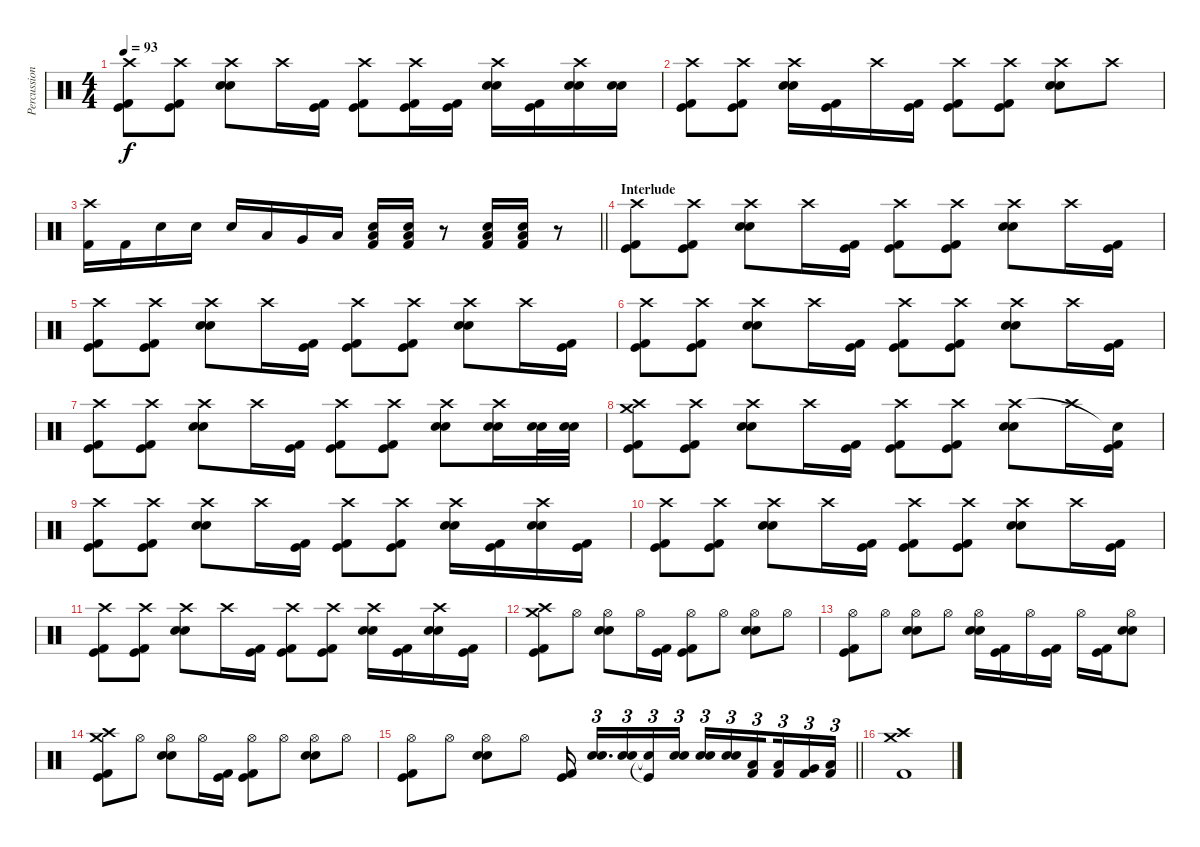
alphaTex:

\track ("Percussion" "Percussion") {instrument percussion}
\staff {score}
\articulation defaults
\ts (4 4)
\tempo 93
\clef neutral
\ks c
("Kick (hit) 2" "Kick (hit)" "Crash high (hit)").8{dy f} ("Kick (hit) 2" "Kick (hit)" "Crash high (hit)").8 ("Electric Snare (hit)" "Snare (hit) 2" "Crash high (hit)").8 "Crash high (hit)".16 ("Kick (hit) 2" "Kick (hit)").16 ("Kick (hit) 2" "Kick (hit)" "Crash high (hit)").8 ("Kick (hit) 2" "Kick (hit)" "Crash high (hit)").16 ("Kick (hit) 2" "Kick (hit)").16 ("Electric Snare (hit)" "Snare (hit) 2" "Crash high (hit)").16 ("Kick (hit) 2" "Kick (hit)").16 ("Electric Snare (hit)" "Snare (hit) 2" "Crash high (hit)").16 ("Electric Snare (hit)" "Snare (hit) 2").16 |
("Kick (hit) 2" "Kick (hit)" "Crash high (hit)").8 ("Kick (hit) 2" "Kick (hit)" "Crash high (hit)").8 ("Electric Snare (hit)" "Snare (hit) 2" "Crash high (hit)").16 ("Kick (hit) 2" "Kick (hit)").16 "Crash high (hit)".16 ("Kick (hit) 2" "Kick (hit)").16 ("Kick (hit) 2" "Kick (hit)" "Crash high (hit)").8 ("Kick (hit) 2" "Kick (hit)" "Crash high (hit)").8 ("Electric Snare (hit)" "Snare (hit) 2" "Crash high (hit)").8 "Crash high (hit)".8 |
\barLineRight lightlight
("Kick (hit) 2" "Crash high (hit)").16 "Kick (hit) 2".16 "Snare (hit) 2".16 "Snare (hit) 2".16 "Snare (hit) 2".16 "Low Tom (hit)".16 "Very Low Tom (hit)".16 "Low Floor Tom (hit)".16 ("Kick (hit) 2" "Snare (hit) 2" "Low Floor Tom (hit)").16 ("Kick (hit) 2" "Snare (hit) 2" "Low Floor Tom (hit)").16 r.8 ("Kick (hit) 2" "Snare (hit) 2" "Low Floor Tom (hit)").16 ("Kick (hit) 2" "Snare (hit) 2" "Low Floor Tom (hit)").16 r.8 |
\section ("" "Interlude")
("Kick (hit) 2" "Kick (hit)" "Crash high (hit)").8 ("Kick (hit) 2" "Kick (hit)" "Crash high (hit)").8 ("Electric Snare (hit)" "Snare (hit) 2" "Crash high (hit)").8 "Crash high (hit)".16 ("Kick (hit) 2" "Kick (hit)").16 ("Kick (hit) 2" "Kick (hit)" "Crash high (hit)").8 ("Kick (hit) 2" "Kick (hit)" "Crash high (hit)").8 ("Electric Snare (hit)" "Snare (hit) 2" "Crash high (hit)").8 "Crash high (hit)".16 ("Kick (hit) 2" "Kick (hit)").16 |
("Kick (hit) 2" "Kick (hit)" "Crash high (hit)").8 ("Kick (hit) 2" "Kick (hit)" "Crash high (hit)").8 ("Electric Snare (hit)" "Snare (hit) 2" "Crash high (hit)").8 "Crash high (hit)".16 ("Kick (hit) 2" "Kick (hit)").16 ("Kick (hit) 2" "Kick (hit)" "Crash high (hit)").8 ("Kick (hit) 2" "Kick (hit)" "Crash high (hit)").8 ("Electric Snare (hit)" "Snare (hit) 2" "Crash high (hit)").8 "Crash high (hit)".16 ("Kick (hit) 2" "Kick (hit)").16 |
("Kick (hit) 2" "Kick (hit)" "Crash high (hit)").8 ("Kick (hit) 2" "Kick (hit)" "Crash high (hit)").8 ("Electric Snare (hit)" "Snare (hit) 2" "Crash high (hit)").8 "Crash high (hit)".16 ("Kick (hit) 2" "Kick (hit)").16 ("Kick (hit) 2" "Kick (hit)" "Crash high (hit)").8 ("Kick (hit) 2" "Kick (hit)" "Crash high (hit)").8 ("Electric Snare (hit)" "Snare (hit) 2" "Crash high (hit)").8 "Crash high (hit)".16 ("Kick (hit) 2" "Kick (hit)").16 |
("Kick (hit) 2" "Kick (hit)" "Crash high (hit)").8 ("Kick (hit) 2" "Kick (hit)" "Crash high (hit)").8 ("Electric Snare (hit)" "Snare (hit) 2" "Crash high (hit)").8 "Crash high (hit)".16 ("Kick (hit) 2" "Kick (hit)").16 ("Kick (hit) 2" "Kick (hit)" "Crash high (hit)").8 ("Kick (hit) 2" "Kick (hit)" "Crash high (hit)").8 ("Electric Snare (hit)" "Snare (hit) 2" "Crash high (hit)").8 ("Electric Snare (hit)" "Snare (hit) 2" "Crash high (hit)").16 ("Electric Snare (hit)" "Snare (hit) 2").32 ("Electric Snare (hit)" "Snare (hit) 2").32 |
("Kick (hit) 2" "Kick (hit)" "Crash high (hit)" "Crash medium (hit)").8 ("Kick (hit) 2" "Kick (hit)" "Crash high (hit)").8 ("Electric Snare (hit)" "Snare (hit) 2" "Crash high (hit)").8 "Crash high (hit)".16 ("Kick (hit) 2" "Kick (hit)").16 ("Kick (hit) 2" "Kick (hit)" "Crash high (hit)").8 ("Kick (hit) 2" "Kick (hit)" "Crash high (hit)").8 ("Electric Snare (hit)" "Snare (hit) 2" "Crash high (hit)").8 "Crash high (hit)".16 ("Kick (hit) 2" "Kick (hit)" "Snare (hit)"{t}).16 |
("Kick (hit) 2" "Kick (hit)" "Crash high (hit)").8 ("Kick (hit) 2" "Kick (hit)" "Crash high (hit)").8 ("Electric Snare (hit)" "Snare (hit) 2" "Crash high (hit)").8 "Crash high (hit)".16 ("Kick (hit) 2" "Kick (hit)").16 ("Kick (hit) 2" "Kick (hit)" "Crash high (hit)").8 ("Kick (hit) 2" "Kick (hit)" "Crash high (hit)").8 ("Electric Snare (hit)" "Snare (hit) 2" "Crash high (hit)").16 ("Kick (hit) 2" "Kick (hit)").16 ("Electric Snare (hit)" "Snare (hit) 2" "Crash high (hit)").16 ("Kick (hit) 2" "Kick (hit)").16 |
("Kick (hit) 2" "Kick (hit)" "Crash high (hit)").8 ("Kick (hit) 2" "Kick (hit)" "Crash high (hit)").8 ("Electric Snare (hit)" "Snare (hit) 2" "Crash high (hit)").8 "Crash high (hit)".16 ("Kick (hit) 2" "Kick (hit)").16 ("Kick (hit) 2" "Kick (hit)" "Crash high (hit)").8 ("Kick (hit) 2" "Kick (hit)" "Crash high (hit)").8 ("Electric Snare (hit)" "Snare (hit) 2" "Crash high (hit)").8 "Crash high (hit)".16 ("Kick (hit) 2" "Kick (hit)").16 |
("Kick (hit) 2" "Kick (hit)" "Crash high (hit)").8 ("Kick (hit) 2" "Kick (hit)" "Crash high (hit)").8 ("Electric Snare (hit)" "Snare (hit) 2" "Crash high (hit)").8 "Crash high (hit)".16 ("Kick (hit) 2" "Kick (hit)").16 ("Kick (hit) 2" "Kick (hit)" "Crash high (hit)").8 ("Kick (hit) 2" "Kick (hit)" "Crash high (hit)").8 ("Electric Snare (hit)" "Snare (hit) 2" "Crash high (hit)").16 ("Kick (hit) 2" "Kick (hit)").16 ("Electric Snare (hit)" "Snare (hit) 2" "Crash high (hit)").16 ("Kick (hit) 2" "Kick (hit)").16 |
("Kick (hit) 2" "Kick (hit)" "Crash medium (hit)" "Crash high (hit)").8 "Hi-Hat (open)".8 ("Electric Snare (hit)" "Snare (hit) 2" "Hi-Hat (open)").8 "Hi-Hat (open)".16 ("Kick (hit) 2" "Kick (hit)").16 ("Kick (hit) 2" "Kick (hit)" "Hi-Hat (open)").8 "Hi-Hat (open)".8 ("Electric Snare (hit)" "Snare (hit) 2" "Hi-Hat (open)").8 "Hi-Hat (open)".8 |
("Kick (hit) 2" "Kick (hit)" "Hi-Hat (open)").8 "Hi-Hat (open)".8 ("Electric Snare (hit)" "Snare (hit) 2" "Hi-Hat (open)").8 "Hi-Hat (open)".8 ("Electric Snare (hit)" "Snare (hit) 2" "Hi-Hat (open)").16 ("Kick (hit) 2" "Kick (hit)").16 "Hi-Hat (open)".16 ("Kick (hit) 2" "Kick (hit)").16 "Hi-Hat (open)".16 ("Kick (hit) 2" "Kick (hit)").16 ("Electric Snare (hit)" "Snare (hit) 2" "Hi-Hat (open)").8 |
("Kick (hit) 2" "Kick (hit)" "Crash medium (hit)" "Crash high (hit)").8 "Hi-Hat (open)".8 ("Electric Snare (hit)" "Snare (hit) 2" "Hi-Hat (open)").8 "Hi-Hat (open)".16 ("Kick (hit) 2" "Kick (hit)").16 ("Kick (hit) 2" "Kick (hit)" "Hi-Hat (open)").8 "Hi-Hat (open)".8 ("Electric Snare (hit)" "Snare (hit) 2" "Hi-Hat (open)").8 "Hi-Hat (open)".8 |
\barLineRight lightlight
("Kick (hit) 2" "Kick (hit)" "Hi-Hat (open)").8 "Hi-Hat (open)".8 ("Electric Snare (hit)" "Snare (hit) 2" "Hi-Hat (open)").8 "Hi-Hat (open)".8 ("Kick (hit) 2" "Kick (hit)").16{beam splitsecondary} ("Electric Snare (hit)" "Snare (hit) 2").16{d tu (3 2)} ("Electric Snare (hit)" "Snare (hit) 2").16{tu (3 2)} ("Kick (hit)"{t} "Snare (hit)"{t}).16{tu (3 2)} ("Electric Snare (hit)" "Snare (hit) 2").16{tu (3 2)} ("Electric Snare (hit)" "Snare (hit) 2").16{tu (3 2)} ("Electric Snare (hit)" "Snare (hit) 2").16{tu (3 2)} ("Kick (hit) 2" "Low Tom (hit)").16{tu (3 2) beam splitsecondary} ("Kick (hit) 2" "Low Tom (hit)").16{tu (3 2)} ("Kick (hit) 2" "Very Low Tom (hit)").16{tu (3 2)} ("Kick (hit) 2" "Low Floor Tom (hit)").16{tu (3 2)} |
("Kick (hit) 2" "Crash medium (hit)" "Crash high (hit)").1
